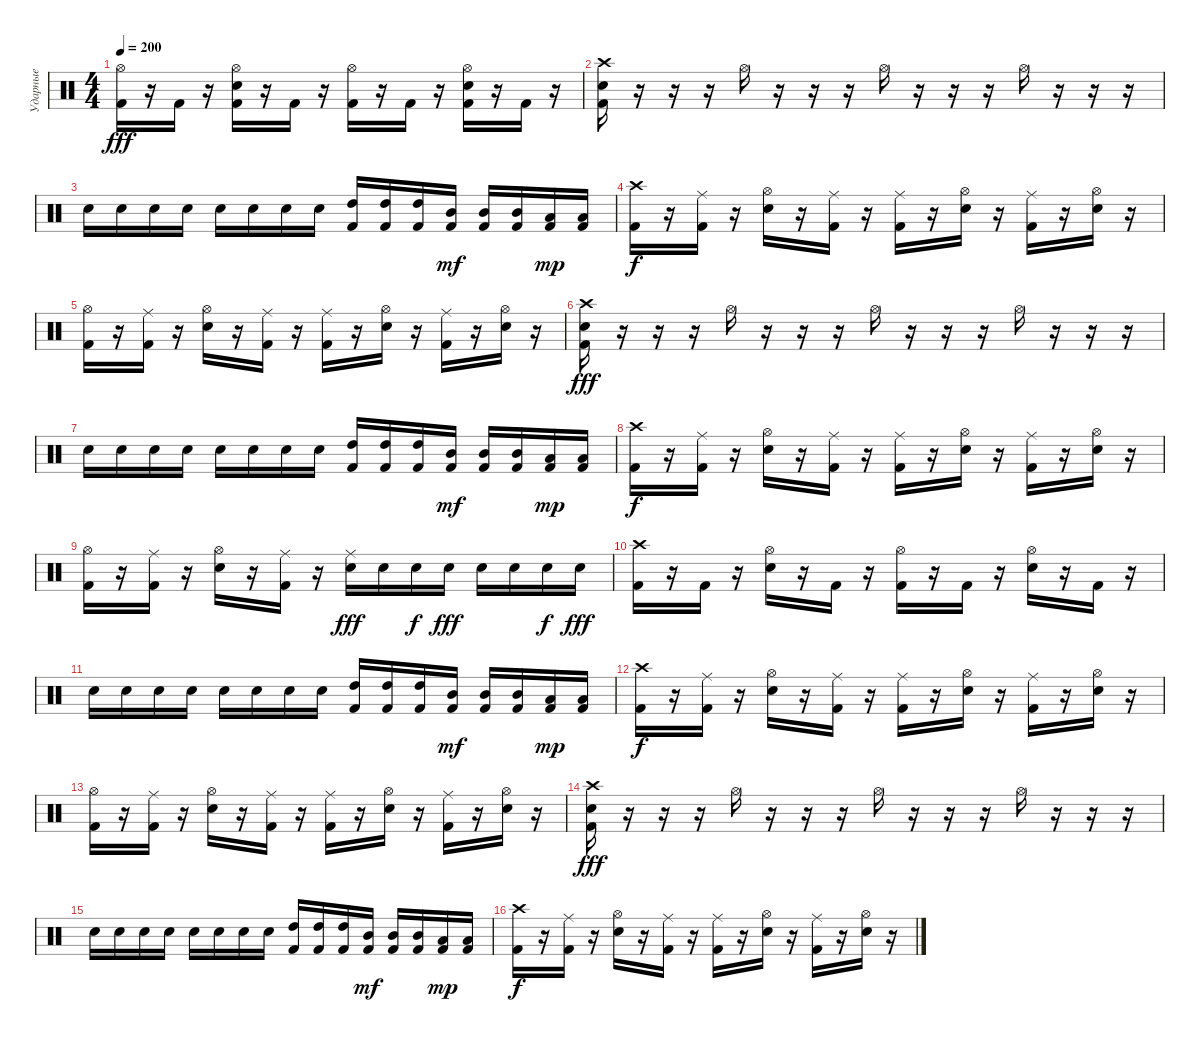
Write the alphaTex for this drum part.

\track ("Ударные" "Ударные") {instrument percussion}
\staff {score}
\articulation defaults
\ts (4 4)
\tempo 200
\clef neutral
\ks c
("Hi-Hat (open)" "Kick (hit) 2").16{dy fff} r.16 "Kick (hit) 2".16 r.16 ("Hi-Hat (open)" "Electric Snare (hit)" "Kick (hit) 2").16 r.16 "Kick (hit) 2".16 r.16 ("Hi-Hat (open)" "Kick (hit) 2").16 r.16 "Kick (hit) 2".16 r.16 ("Hi-Hat (open)" "Electric Snare (hit)" "Kick (hit) 2").16 r.16 "Kick (hit) 2".16 r.16 |
("Crash high (hit)" "Electric Snare (hit)" "Kick (hit) 2").16 r.16 r.16 r.16 "Hi-Hat (open)".16 r.16 r.16 r.16 "Hi-Hat (open)".16 r.16 r.16 r.16 "Hi-Hat (open)".16 r.16 r.16 r.16 |
"Electric Snare (hit)".16 "Electric Snare (hit)".16 "Electric Snare (hit)".16 "Electric Snare (hit)".16 "Electric Snare (hit)".16 "Electric Snare (hit)".16 "Electric Snare (hit)".16 "Electric Snare (hit)".16 ("High Tom (hit)" "Kick (hit) 2").16 ("High Tom (hit)" "Kick (hit) 2").16 ("High Tom (hit)" "Kick (hit) 2").16 ("Mid Tom (hit)" "Kick (hit) 2").16{dy mf} ("Mid Tom (hit)" "Kick (hit) 2").16 ("Mid Tom (hit)" "Kick (hit) 2").16 ("Low Tom (hit)" "Kick (hit) 2").16{dy mp} ("Low Tom (hit)" "Kick (hit) 2").16 |
("Crash high (hit)" "Kick (hit) 2").16{dy f} r.16 ("Ride (middle)" "Kick (hit) 2").16 r.16 ("Hi-Hat (open)" "Electric Snare (hit)").16 r.16 ("Ride (middle)" "Kick (hit) 2").16 r.16 ("Ride (middle)" "Kick (hit) 2").16 r.16 ("Hi-Hat (open)" "Electric Snare (hit)").16 r.16 ("Ride (middle)" "Kick (hit) 2").16 r.16 ("Hi-Hat (open)" "Electric Snare (hit)").16 r.16 |
("Hi-Hat (open)" "Kick (hit) 2").16 r.16 ("Ride (middle)" "Kick (hit) 2").16 r.16 ("Hi-Hat (open)" "Electric Snare (hit)").16 r.16 ("Ride (middle)" "Kick (hit) 2").16 r.16 ("Ride (middle)" "Kick (hit) 2").16 r.16 ("Hi-Hat (open)" "Electric Snare (hit)").16 r.16 ("Ride (middle)" "Kick (hit) 2").16 r.16 ("Hi-Hat (open)" "Electric Snare (hit)").16 r.16 |
("Crash high (hit)" "Electric Snare (hit)" "Kick (hit) 2").16{dy fff} r.16 r.16 r.16 "Hi-Hat (open)".16 r.16 r.16 r.16 "Hi-Hat (open)".16 r.16 r.16 r.16 "Hi-Hat (open)".16 r.16 r.16 r.16 |
"Electric Snare (hit)".16 "Electric Snare (hit)".16 "Electric Snare (hit)".16 "Electric Snare (hit)".16 "Electric Snare (hit)".16 "Electric Snare (hit)".16 "Electric Snare (hit)".16 "Electric Snare (hit)".16 ("High Tom (hit)" "Kick (hit) 2").16 ("High Tom (hit)" "Kick (hit) 2").16 ("High Tom (hit)" "Kick (hit) 2").16 ("Mid Tom (hit)" "Kick (hit) 2").16{dy mf} ("Mid Tom (hit)" "Kick (hit) 2").16 ("Mid Tom (hit)" "Kick (hit) 2").16 ("Low Tom (hit)" "Kick (hit) 2").16{dy mp} ("Low Tom (hit)" "Kick (hit) 2").16 |
("Crash high (hit)" "Kick (hit) 2").16{dy f} r.16 ("Ride (middle)" "Kick (hit) 2").16 r.16 ("Hi-Hat (open)" "Electric Snare (hit)").16 r.16 ("Ride (middle)" "Kick (hit) 2").16 r.16 ("Ride (middle)" "Kick (hit) 2").16 r.16 ("Hi-Hat (open)" "Electric Snare (hit)").16 r.16 ("Ride (middle)" "Kick (hit) 2").16 r.16 ("Hi-Hat (open)" "Electric Snare (hit)").16 r.16 |
("Hi-Hat (open)" "Kick (hit) 2").16 r.16 ("Ride (middle)" "Kick (hit) 2").16 r.16 ("Hi-Hat (open)" "Electric Snare (hit)").16 r.16 ("Ride (middle)" "Kick (hit) 2").16 r.16 ("Ride (middle)" "Electric Snare (hit)").16{dy fff} "Electric Snare (hit)".16 "Electric Snare (hit)".16{dy f} "Electric Snare (hit)".16{dy fff} "Electric Snare (hit)".16 "Electric Snare (hit)".16 "Electric Snare (hit)".16{dy f} "Electric Snare (hit)".16{dy fff} |
("Crash high (hit)" "Kick (hit) 2").16 r.16 "Kick (hit) 2".16 r.16 ("Hi-Hat (open)" "Electric Snare (hit)").16 r.16 "Kick (hit) 2".16 r.16 ("Hi-Hat (open)" "Kick (hit) 2").16 r.16 "Kick (hit) 2".16 r.16 ("Hi-Hat (open)" "Electric Snare (hit)").16 r.16 "Kick (hit) 2".16 r.16 |
"Electric Snare (hit)".16 "Electric Snare (hit)".16 "Electric Snare (hit)".16 "Electric Snare (hit)".16 "Electric Snare (hit)".16 "Electric Snare (hit)".16 "Electric Snare (hit)".16 "Electric Snare (hit)".16 ("High Tom (hit)" "Kick (hit) 2").16 ("High Tom (hit)" "Kick (hit) 2").16 ("High Tom (hit)" "Kick (hit) 2").16 ("Mid Tom (hit)" "Kick (hit) 2").16{dy mf} ("Mid Tom (hit)" "Kick (hit) 2").16 ("Mid Tom (hit)" "Kick (hit) 2").16 ("Low Tom (hit)" "Kick (hit) 2").16{dy mp} ("Low Tom (hit)" "Kick (hit) 2").16 |
("Crash high (hit)" "Kick (hit) 2").16{dy f} r.16 ("Ride (middle)" "Kick (hit) 2").16 r.16 ("Hi-Hat (open)" "Electric Snare (hit)").16 r.16 ("Ride (middle)" "Kick (hit) 2").16 r.16 ("Ride (middle)" "Kick (hit) 2").16 r.16 ("Hi-Hat (open)" "Electric Snare (hit)").16 r.16 ("Ride (middle)" "Kick (hit) 2").16 r.16 ("Hi-Hat (open)" "Electric Snare (hit)").16 r.16 |
("Hi-Hat (open)" "Kick (hit) 2").16 r.16 ("Ride (middle)" "Kick (hit) 2").16 r.16 ("Hi-Hat (open)" "Electric Snare (hit)").16 r.16 ("Ride (middle)" "Kick (hit) 2").16 r.16 ("Ride (middle)" "Kick (hit) 2").16 r.16 ("Hi-Hat (open)" "Electric Snare (hit)").16 r.16 ("Ride (middle)" "Kick (hit) 2").16 r.16 ("Hi-Hat (open)" "Electric Snare (hit)").16 r.16 |
("Crash high (hit)" "Electric Snare (hit)" "Kick (hit) 2").16{dy fff} r.16 r.16 r.16 "Hi-Hat (open)".16 r.16 r.16 r.16 "Hi-Hat (open)".16 r.16 r.16 r.16 "Hi-Hat (open)".16 r.16 r.16 r.16 |
"Electric Snare (hit)".16 "Electric Snare (hit)".16 "Electric Snare (hit)".16 "Electric Snare (hit)".16 "Electric Snare (hit)".16 "Electric Snare (hit)".16 "Electric Snare (hit)".16 "Electric Snare (hit)".16 ("High Tom (hit)" "Kick (hit) 2").16 ("High Tom (hit)" "Kick (hit) 2").16 ("High Tom (hit)" "Kick (hit) 2").16 ("Mid Tom (hit)" "Kick (hit) 2").16{dy mf} ("Mid Tom (hit)" "Kick (hit) 2").16 ("Mid Tom (hit)" "Kick (hit) 2").16 ("Low Tom (hit)" "Kick (hit) 2").16{dy mp} ("Low Tom (hit)" "Kick (hit) 2").16 |
("Crash high (hit)" "Kick (hit) 2").16{dy f} r.16 ("Ride (middle)" "Kick (hit) 2").16 r.16 ("Hi-Hat (open)" "Electric Snare (hit)").16 r.16 ("Ride (middle)" "Kick (hit) 2").16 r.16 ("Ride (middle)" "Kick (hit) 2").16 r.16 ("Hi-Hat (open)" "Electric Snare (hit)").16 r.16 ("Ride (middle)" "Kick (hit) 2").16 r.16 ("Hi-Hat (open)" "Electric Snare (hit)").16 r.16
